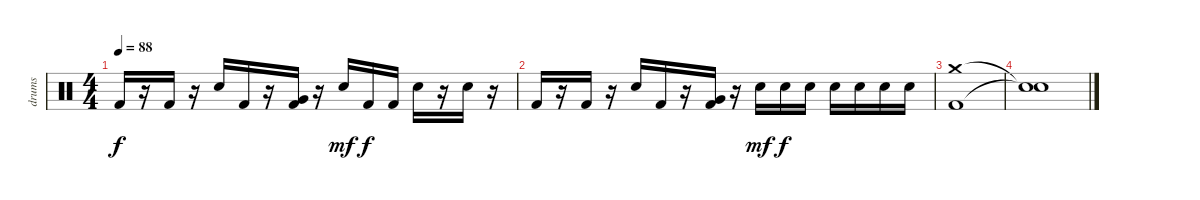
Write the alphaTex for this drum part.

\track ("drums" "drums") {instrument percussion}
\staff {score}
\articulation defaults
\ts (4 4)
\tempo 88
\clef neutral
\ks c "Kick (hit) 2".16{dy f}
r.16 "Kick (hit) 2".16 r.16 "Electric Snare (hit)".16 "Kick (hit) 2".16 r.16 ("Very Low Tom (hit)" "Kick (hit) 2").16 r.16 "Electric Snare (hit)".16{dy mf} "Kick (hit) 2".16{dy f} "Kick (hit) 2".16 "Electric Snare (hit)".16 r.16 "Electric Snare (hit)".16 r.16 |
"Kick (hit) 2".16 r.16 "Kick (hit) 2".16 r.16 "Electric Snare (hit)".16 "Kick (hit) 2".16 r.16 ("Very Low Tom (hit)" "Kick (hit) 2").16 r.16 "Electric Snare (hit)".16{dy mf} "Electric Snare (hit)".16{dy f} "Electric Snare (hit)".16 "Electric Snare (hit)".16 "Electric Snare (hit)".16 "Electric Snare (hit)".16 "Electric Snare (hit)".16 |
("Crash medium (hit)" "Kick (hit) 2").1 |
("Snare (hit)"{t} "Snare (hit)"{t}).1
